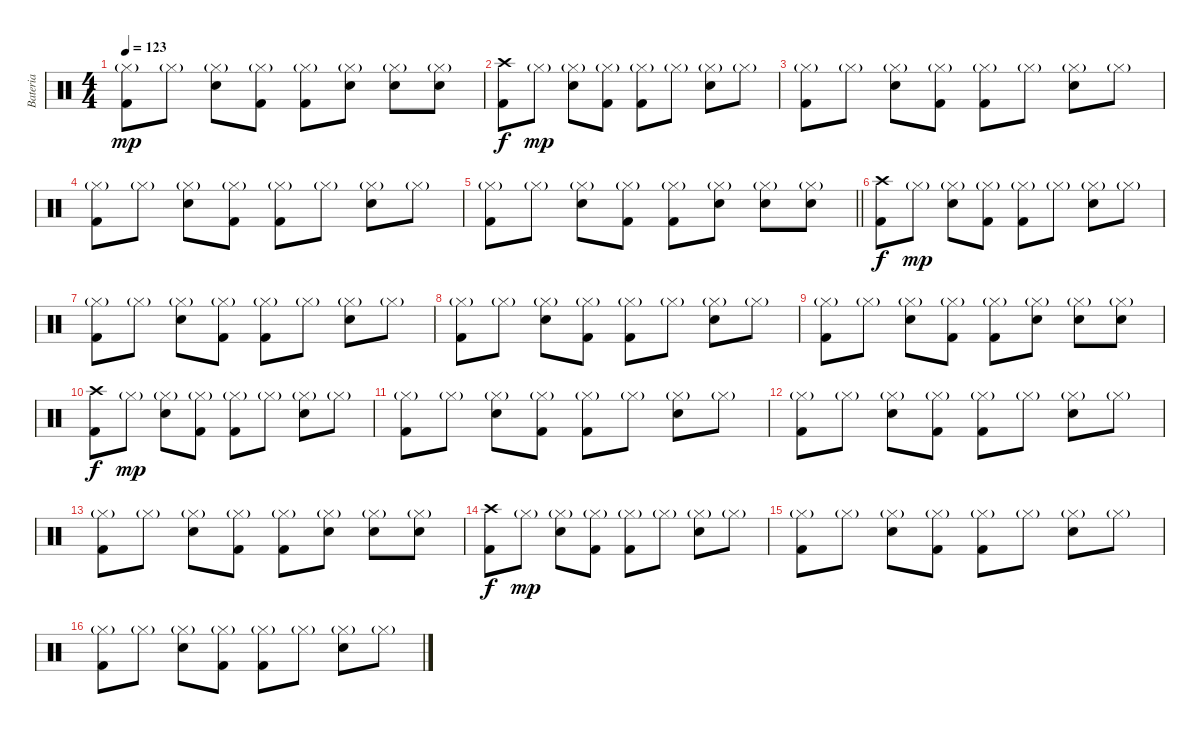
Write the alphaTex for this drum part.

\track ("Bateria" "Bateria") {instrument percussion}
\staff {score}
\articulation defaults
\ts (4 4)
\tempo 123
\clef neutral
\ks c
("Hi-Hat (closed)"{g} "Kick (hit) 2").8{dy mp} "Hi-Hat (closed)"{g}.8 ("Hi-Hat (closed)"{g} "Snare (hit) 2").8 ("Hi-Hat (closed)"{g} "Kick (hit) 2").8 ("Hi-Hat (closed)"{g} "Kick (hit) 2").8 ("Hi-Hat (closed)"{g} "Snare (hit) 2").8 ("Hi-Hat (closed)"{g} "Snare (hit) 2").8 ("Hi-Hat (closed)"{g} "Snare (hit) 2").8 |
("Crash high (hit)" "Kick (hit) 2").8{dy f} "Hi-Hat (closed)"{g}.8{dy mp} ("Hi-Hat (closed)"{g} "Snare (hit) 2").8 ("Hi-Hat (closed)"{g} "Kick (hit) 2").8 ("Hi-Hat (closed)"{g} "Kick (hit) 2").8 "Hi-Hat (closed)"{g}.8 ("Hi-Hat (closed)"{g} "Snare (hit) 2").8 "Hi-Hat (closed)"{g}.8 |
("Hi-Hat (closed)"{g} "Kick (hit) 2").8 "Hi-Hat (closed)"{g}.8 ("Hi-Hat (closed)"{g} "Snare (hit) 2").8 ("Hi-Hat (closed)"{g} "Kick (hit) 2").8 ("Hi-Hat (closed)"{g} "Kick (hit) 2").8 "Hi-Hat (closed)"{g}.8 ("Hi-Hat (closed)"{g} "Snare (hit) 2").8 "Hi-Hat (closed)"{g}.8 |
("Hi-Hat (closed)"{g} "Kick (hit) 2").8 "Hi-Hat (closed)"{g}.8 ("Hi-Hat (closed)"{g} "Snare (hit) 2").8 ("Hi-Hat (closed)"{g} "Kick (hit) 2").8 ("Hi-Hat (closed)"{g} "Kick (hit) 2").8 "Hi-Hat (closed)"{g}.8 ("Hi-Hat (closed)"{g} "Snare (hit) 2").8 "Hi-Hat (closed)"{g}.8 |
\barLineRight lightlight
("Hi-Hat (closed)"{g} "Kick (hit) 2").8 "Hi-Hat (closed)"{g}.8 ("Hi-Hat (closed)"{g} "Snare (hit) 2").8 ("Hi-Hat (closed)"{g} "Kick (hit) 2").8 ("Hi-Hat (closed)"{g} "Kick (hit) 2").8 ("Hi-Hat (closed)"{g} "Snare (hit) 2").8 ("Hi-Hat (closed)"{g} "Snare (hit) 2").8 ("Hi-Hat (closed)"{g} "Snare (hit) 2").8 |
("Crash high (hit)" "Kick (hit) 2").8{dy f volume 8} "Hi-Hat (closed)"{g}.8{dy mp} ("Hi-Hat (closed)"{g} "Snare (hit) 2").8 ("Hi-Hat (closed)"{g} "Kick (hit) 2").8 ("Hi-Hat (closed)"{g} "Kick (hit) 2").8 "Hi-Hat (closed)"{g}.8 ("Hi-Hat (closed)"{g} "Snare (hit) 2").8 "Hi-Hat (closed)"{g}.8 |
("Hi-Hat (closed)"{g} "Kick (hit) 2").8 "Hi-Hat (closed)"{g}.8 ("Hi-Hat (closed)"{g} "Snare (hit) 2").8 ("Hi-Hat (closed)"{g} "Kick (hit) 2").8 ("Hi-Hat (closed)"{g} "Kick (hit) 2").8 "Hi-Hat (closed)"{g}.8 ("Hi-Hat (closed)"{g} "Snare (hit) 2").8 "Hi-Hat (closed)"{g}.8 |
("Hi-Hat (closed)"{g} "Kick (hit) 2").8 "Hi-Hat (closed)"{g}.8 ("Hi-Hat (closed)"{g} "Snare (hit) 2").8 ("Hi-Hat (closed)"{g} "Kick (hit) 2").8 ("Hi-Hat (closed)"{g} "Kick (hit) 2").8 "Hi-Hat (closed)"{g}.8 ("Hi-Hat (closed)"{g} "Snare (hit) 2").8 "Hi-Hat (closed)"{g}.8 |
("Hi-Hat (closed)"{g} "Kick (hit) 2").8 "Hi-Hat (closed)"{g}.8 ("Hi-Hat (closed)"{g} "Snare (hit) 2").8 ("Hi-Hat (closed)"{g} "Kick (hit) 2").8 ("Hi-Hat (closed)"{g} "Kick (hit) 2").8 ("Hi-Hat (closed)"{g} "Snare (hit) 2").8 ("Hi-Hat (closed)"{g} "Snare (hit) 2").8 ("Hi-Hat (closed)"{g} "Snare (hit) 2").8 |
("Crash high (hit)" "Kick (hit) 2").8{dy f volume 6} "Hi-Hat (closed)"{g}.8{dy mp} ("Hi-Hat (closed)"{g} "Snare (hit) 2").8 ("Hi-Hat (closed)"{g} "Kick (hit) 2").8 ("Hi-Hat (closed)"{g} "Kick (hit) 2").8 "Hi-Hat (closed)"{g}.8 ("Hi-Hat (closed)"{g} "Snare (hit) 2").8 "Hi-Hat (closed)"{g}.8 |
("Hi-Hat (closed)"{g} "Kick (hit) 2").8 "Hi-Hat (closed)"{g}.8 ("Hi-Hat (closed)"{g} "Snare (hit) 2").8 ("Hi-Hat (closed)"{g} "Kick (hit) 2").8 ("Hi-Hat (closed)"{g} "Kick (hit) 2").8 "Hi-Hat (closed)"{g}.8 ("Hi-Hat (closed)"{g} "Snare (hit) 2").8 "Hi-Hat (closed)"{g}.8 |
("Hi-Hat (closed)"{g} "Kick (hit) 2").8 "Hi-Hat (closed)"{g}.8 ("Hi-Hat (closed)"{g} "Snare (hit) 2").8 ("Hi-Hat (closed)"{g} "Kick (hit) 2").8 ("Hi-Hat (closed)"{g} "Kick (hit) 2").8 "Hi-Hat (closed)"{g}.8 ("Hi-Hat (closed)"{g} "Snare (hit) 2").8 "Hi-Hat (closed)"{g}.8 |
("Hi-Hat (closed)"{g} "Kick (hit) 2").8 "Hi-Hat (closed)"{g}.8 ("Hi-Hat (closed)"{g} "Snare (hit) 2").8 ("Hi-Hat (closed)"{g} "Kick (hit) 2").8 ("Hi-Hat (closed)"{g} "Kick (hit) 2").8 ("Hi-Hat (closed)"{g} "Snare (hit) 2").8 ("Hi-Hat (closed)"{g} "Snare (hit) 2").8 ("Hi-Hat (closed)"{g} "Snare (hit) 2").8 |
("Crash high (hit)" "Kick (hit) 2").8{dy f volume 4} "Hi-Hat (closed)"{g}.8{dy mp} ("Hi-Hat (closed)"{g} "Snare (hit) 2").8 ("Hi-Hat (closed)"{g} "Kick (hit) 2").8 ("Hi-Hat (closed)"{g} "Kick (hit) 2").8 "Hi-Hat (closed)"{g}.8 ("Hi-Hat (closed)"{g} "Snare (hit) 2").8 "Hi-Hat (closed)"{g}.8 |
("Hi-Hat (closed)"{g} "Kick (hit) 2").8 "Hi-Hat (closed)"{g}.8 ("Hi-Hat (closed)"{g} "Snare (hit) 2").8 ("Hi-Hat (closed)"{g} "Kick (hit) 2").8 ("Hi-Hat (closed)"{g} "Kick (hit) 2").8 "Hi-Hat (closed)"{g}.8 ("Hi-Hat (closed)"{g} "Snare (hit) 2").8 "Hi-Hat (closed)"{g}.8 |
("Hi-Hat (closed)"{g} "Kick (hit) 2").8 "Hi-Hat (closed)"{g}.8 ("Hi-Hat (closed)"{g} "Snare (hit) 2").8 ("Hi-Hat (closed)"{g} "Kick (hit) 2").8 ("Hi-Hat (closed)"{g} "Kick (hit) 2").8 "Hi-Hat (closed)"{g}.8 ("Hi-Hat (closed)"{g} "Snare (hit) 2").8 "Hi-Hat (closed)"{g}.8
